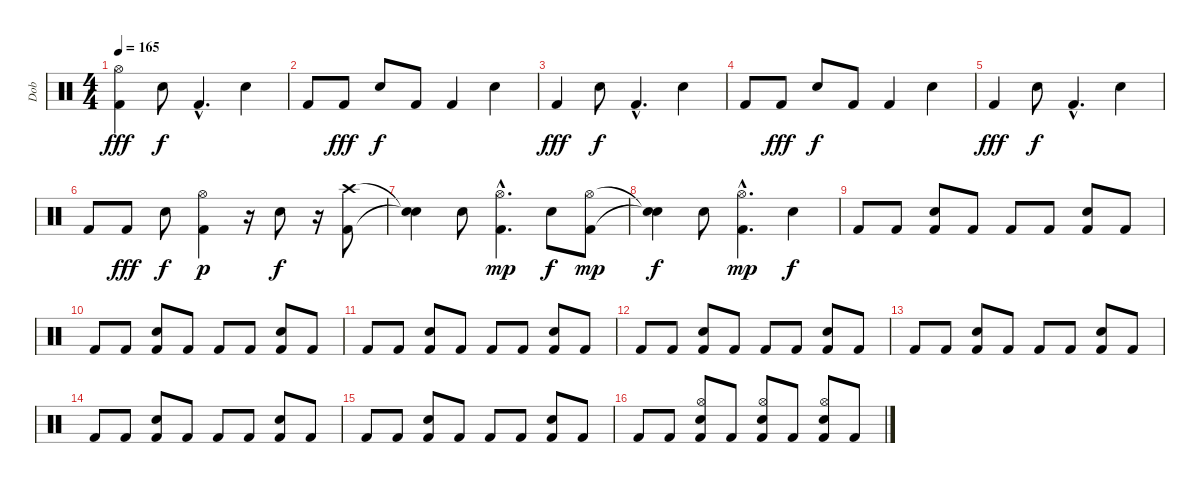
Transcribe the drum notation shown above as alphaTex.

\track ("Dob" "Dob") {instrument percussion}
\staff {score}
\articulation defaults
\ts (4 4)
\tempo 165
\clef neutral
\ks c
("Kick (hit) 2" "Hi-Hat (open)").4{dy fff} "Electric Snare (hit)".8{dy f} "Kick (hit) 2"{hac}.4{d} "Electric Snare (hit)".4 |
"Kick (hit) 2".8 "Kick (hit) 2".8{dy fff} "Electric Snare (hit)".8{dy f} "Kick (hit) 2".8 "Kick (hit) 2".4 "Electric Snare (hit)".4 |
"Kick (hit) 2".4{dy fff} "Electric Snare (hit)".8{dy f} "Kick (hit) 2"{hac}.4{d} "Electric Snare (hit)".4 |
"Kick (hit) 2".8 "Kick (hit) 2".8{dy fff} "Electric Snare (hit)".8{dy f} "Kick (hit) 2".8 "Kick (hit) 2".4 "Electric Snare (hit)".4 |
"Kick (hit) 2".4{dy fff} "Electric Snare (hit)".8{dy f} "Kick (hit) 2"{hac}.4{d} "Electric Snare (hit)".4 |
"Kick (hit) 2".8 "Kick (hit) 2".8{dy fff} "Electric Snare (hit)".8{dy f} ("Kick (hit) 2" "Hi-Hat (open)").4{dy p} r.16 "Electric Snare (hit)"{tr (40 16)}.8{dy f} r.16 ("Kick (hit) 2" "Crash high (hit)").8 |
("Snare (hit)"{t} "Snare (hit)"{t}).4 "Electric Snare (hit)".8 ("Kick (hit) 2"{hac} "Hi-Hat (open)"{hac}).4{d dy mp} "Electric Snare (hit)".8{dy f} ("Kick (hit) 2" "Hi-Hat (open)").8{dy mp} |
("Snare (hit)"{t} "Snare (hit)"{t}).4{dy f} "Electric Snare (hit)".8 ("Kick (hit) 2"{hac} "Hi-Hat (open)"{hac}).4{d dy mp} "Electric Snare (hit)".4{dy f} |
"Kick (hit) 2".8 "Kick (hit) 2".8 ("Electric Snare (hit)" "Kick (hit) 2").8 "Kick (hit) 2".8 "Kick (hit) 2".8 "Kick (hit) 2".8 ("Electric Snare (hit)" "Kick (hit) 2").8 "Kick (hit) 2".8 |
"Kick (hit) 2".8 "Kick (hit) 2".8 ("Electric Snare (hit)" "Kick (hit) 2").8 "Kick (hit) 2".8 "Kick (hit) 2".8 "Kick (hit) 2".8 ("Electric Snare (hit)" "Kick (hit) 2").8 "Kick (hit) 2".8 |
"Kick (hit) 2".8 "Kick (hit) 2".8 ("Electric Snare (hit)" "Kick (hit) 2").8 "Kick (hit) 2".8 "Kick (hit) 2".8 "Kick (hit) 2".8 ("Electric Snare (hit)" "Kick (hit) 2").8 "Kick (hit) 2".8 |
"Kick (hit) 2".8 "Kick (hit) 2".8 ("Electric Snare (hit)" "Kick (hit) 2").8 "Kick (hit) 2".8 "Kick (hit) 2".8 "Kick (hit) 2".8 ("Electric Snare (hit)" "Kick (hit) 2").8 "Kick (hit) 2".8 |
"Kick (hit) 2".8 "Kick (hit) 2".8 ("Electric Snare (hit)" "Kick (hit) 2").8 "Kick (hit) 2".8 "Kick (hit) 2".8 "Kick (hit) 2".8 ("Electric Snare (hit)" "Kick (hit) 2").8 "Kick (hit) 2".8 |
"Kick (hit) 2".8 "Kick (hit) 2".8 ("Electric Snare (hit)" "Kick (hit) 2").8 "Kick (hit) 2".8 "Kick (hit) 2".8 "Kick (hit) 2".8 ("Electric Snare (hit)" "Kick (hit) 2").8 "Kick (hit) 2".8 |
"Kick (hit) 2".8 "Kick (hit) 2".8 ("Electric Snare (hit)" "Kick (hit) 2").8 "Kick (hit) 2".8 "Kick (hit) 2".8 "Kick (hit) 2".8 ("Electric Snare (hit)" "Kick (hit) 2").8 "Kick (hit) 2".8 |
"Kick (hit) 2".8 "Kick (hit) 2".8 ("Electric Snare (hit)" "Kick (hit) 2" "Hi-Hat (open)").8 "Kick (hit) 2".8 ("Electric Snare (hit)" "Kick (hit) 2" "Hi-Hat (open)").8 "Kick (hit) 2".8 ("Electric Snare (hit)" "Kick (hit) 2" "Hi-Hat (open)").8 "Kick (hit) 2".8
